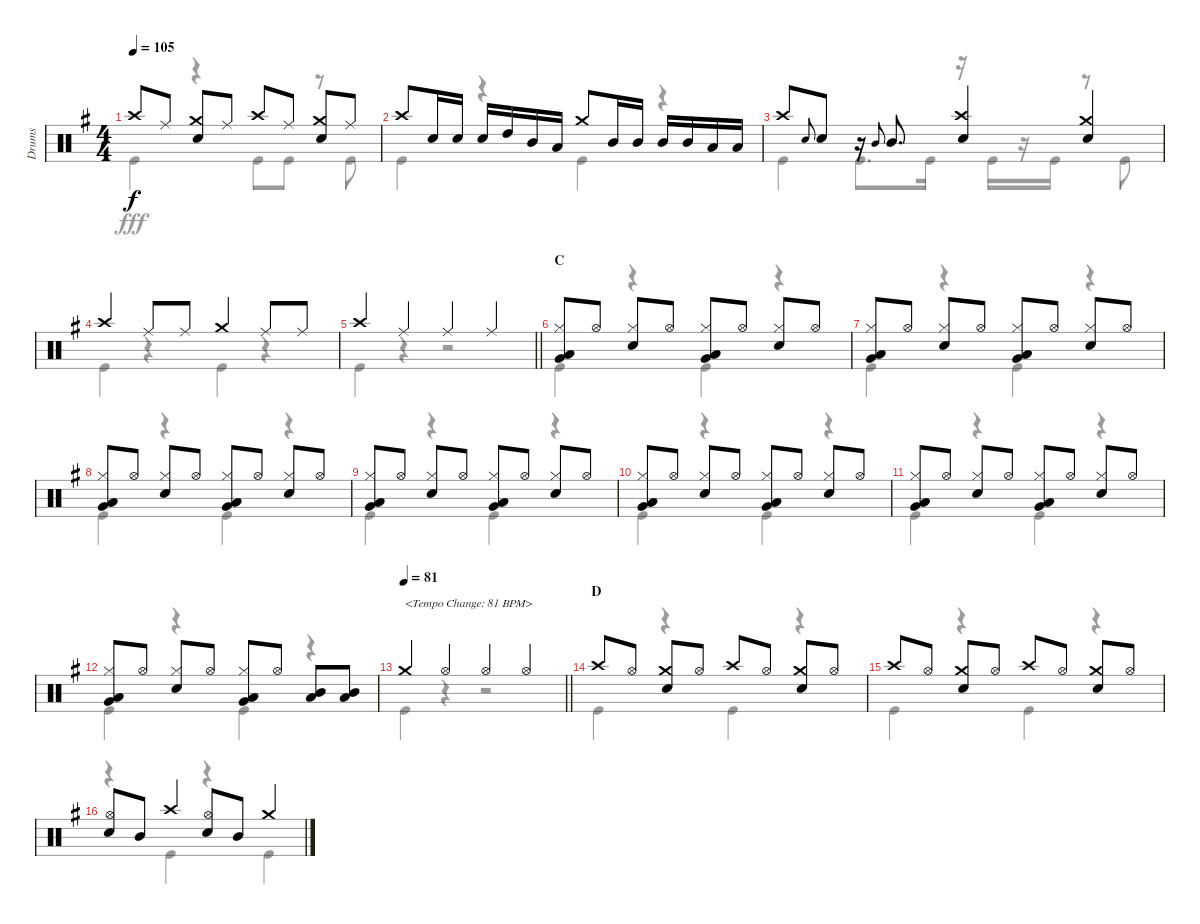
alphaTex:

\track ("Drums" "Drums") {instrument percussion}
\staff {score}
\articulation defaults
\voice
\ts (4 4)
\tempo 105
\clef neutral
\ks g "Crash high (hit)".8{dy f} "Ride (middle)".8
("Crash medium (hit)" "Snare (hit) 2").8 "Ride (middle)".8 "Crash high (hit)".8 "Ride (middle)".8 ("Crash medium (hit)" "Snare (hit) 2").8 "Ride (middle)".8 |
"Crash high (hit)".8 "Snare (hit) 2".16 "Snare (hit) 2".16 "Snare (hit) 2".16 "High Tom (hit)".16 "Mid Tom (hit)".16 "Low Tom (hit)".16 "Crash medium (hit)".8 "Mid Tom (hit)".16 "Mid Tom (hit)".16 "Mid Tom (hit)".16 "Mid Tom (hit)".16 "Low Tom (hit)".16 "Low Tom (hit)".16 |
"Crash high (hit)".8 "Snare (hit) 2".8{gr onbeat} "Snare (hit) 2".8 r.16 "Mid Tom (hit)".8{gr onbeat} "Mid Tom (hit)".8{d} ("Crash high (hit)" "Snare (hit) 2").4 ("Crash medium (hit)" "Snare (hit) 2").4 |
"Crash high (hit)".4 "Ride (middle)".8 "Ride (middle)".8 "Crash medium (hit)".4 "Ride (middle)".8 "Ride (middle)".8 |
\barLineRight lightlight "Crash high (hit)".4 "Ride (middle)".4 "Ride (middle)".4 "Ride (middle)".4
|
\section ("" "C")
("Hi-Hat (closed)" "Low Tom (hit)" "Very Low Tom (hit)").8 "Hi-Hat (open)".8 ("Hi-Hat (closed)" "Snare (hit) 2").8 "Hi-Hat (open)".8 ("Hi-Hat (closed)" "Low Tom (hit)" "Very Low Tom (hit)").8 "Hi-Hat (open)".8 ("Hi-Hat (closed)" "Snare (hit) 2").8 "Hi-Hat (open)".8 |
("Hi-Hat (closed)" "Low Tom (hit)" "Very Low Tom (hit)").8 "Hi-Hat (open)".8 ("Hi-Hat (closed)" "Snare (hit) 2").8 "Hi-Hat (open)".8 ("Hi-Hat (closed)" "Low Tom (hit)" "Very Low Tom (hit)").8 "Hi-Hat (open)".8 ("Hi-Hat (closed)" "Snare (hit) 2").8 "Hi-Hat (open)".8 |
("Hi-Hat (closed)" "Low Tom (hit)" "Very Low Tom (hit)").8 "Hi-Hat (open)".8 ("Hi-Hat (closed)" "Snare (hit) 2").8 "Hi-Hat (open)".8 ("Hi-Hat (closed)" "Low Tom (hit)" "Very Low Tom (hit)").8 "Hi-Hat (open)".8 ("Hi-Hat (closed)" "Snare (hit) 2").8 "Hi-Hat (open)".8 |
("Hi-Hat (closed)" "Low Tom (hit)" "Very Low Tom (hit)").8 "Hi-Hat (open)".8 ("Hi-Hat (closed)" "Snare (hit) 2").8 "Hi-Hat (open)".8 ("Hi-Hat (closed)" "Low Tom (hit)" "Very Low Tom (hit)").8 "Hi-Hat (open)".8 ("Hi-Hat (closed)" "Snare (hit) 2").8 "Hi-Hat (open)".8 |
("Hi-Hat (closed)" "Low Tom (hit)" "Very Low Tom (hit)").8 "Hi-Hat (open)".8 ("Hi-Hat (closed)" "Snare (hit) 2").8 "Hi-Hat (open)".8 ("Hi-Hat (closed)" "Low Tom (hit)" "Very Low Tom (hit)").8 "Hi-Hat (open)".8 ("Hi-Hat (closed)" "Snare (hit) 2").8 "Hi-Hat (open)".8 |
("Hi-Hat (closed)" "Low Tom (hit)" "Very Low Tom (hit)").8 "Hi-Hat (open)".8 ("Hi-Hat (closed)" "Snare (hit) 2").8 "Hi-Hat (open)".8 ("Hi-Hat (closed)" "Low Tom (hit)" "Very Low Tom (hit)").8 "Hi-Hat (open)".8 ("Hi-Hat (closed)" "Snare (hit) 2").8 "Hi-Hat (open)".8 |
("Hi-Hat (closed)" "Low Tom (hit)" "Very Low Tom (hit)").8 "Hi-Hat (open)".8 ("Hi-Hat (closed)" "Snare (hit) 2").8 "Hi-Hat (open)".8 ("Hi-Hat (closed)" "Low Tom (hit)" "Very Low Tom (hit)").8 "Hi-Hat (open)".8 ("Mid Tom (hit)" "Low Tom (hit)").8 ("Mid Tom (hit)" "Low Tom (hit)").8 |
\tempo 81
\barLineRight lightlight "Crash medium (hit)".4{txt "<Tempo Change: 81 BPM>"} "Hi-Hat (open)".4 "Hi-Hat (open)".4 "Hi-Hat (open)".4
|
\section ("" "D")
"Crash high (hit)".8 "Hi-Hat (open)".8 ("Crash medium (hit)" "Snare (hit) 2").8 "Hi-Hat (open)".8 "Crash high (hit)".8 "Hi-Hat (open)".8 ("Crash medium (hit)" "Snare (hit) 2").8 "Hi-Hat (open)".8 |
"Crash high (hit)".8 "Hi-Hat (open)".8 ("Crash medium (hit)" "Snare (hit) 2").8 "Hi-Hat (open)".8 "Crash high (hit)".8 "Hi-Hat (open)".8 ("Crash medium (hit)" "Snare (hit) 2").8 "Hi-Hat (open)".8 |
("Hi-Hat (open)" "Snare (hit) 2").8 "Mid Tom (hit)".8 "Crash high (hit)".4 ("Hi-Hat (open)" "Snare (hit) 2").8 "Mid Tom (hit)".8 "Crash medium (hit)".4
\voice
\clef neutral
\ottava regular
\simile none
\ks g "Kick (hit)".4{dy fff}
r.4 "Kick (hit)".8 "Kick (hit)".8 r.8 "Kick (hit)".8 |
"Kick (hit)".4 r.4 "Kick (hit)".4 r.4 |
"Kick (hit)".4 "Kick (hit)".8{d} "Kick (hit)".16 r.16 "Kick (hit)".16 r.16 "Kick (hit)".16 r.8 "Kick (hit)".8 |
"Kick (hit)".4 r.4 "Kick (hit)".4 r.4 |
\barLineRight lightlight "Kick (hit)".4
r.4 r.2 |
"Kick (hit)".4 r.4 "Kick (hit)".4 r.4 |
"Kick (hit)".4 r.4 "Kick (hit)".4 r.4 |
"Kick (hit)".4 r.4 "Kick (hit)".4 r.4 |
"Kick (hit)".4 r.4 "Kick (hit)".4 r.4 |
"Kick (hit)".4 r.4 "Kick (hit)".4 r.4 |
"Kick (hit)".4 r.4 "Kick (hit)".4 r.4 |
"Kick (hit)".4 r.4 "Kick (hit)".4 r.4 |
\barLineRight lightlight "Kick (hit)".4
r.4 r.2 |
"Kick (hit)".4 r.4 "Kick (hit)".4 r.4 |
"Kick (hit)".4 r.4 "Kick (hit)".4 r.4 |
r.4 "Kick (hit)".4 r.4 "Kick (hit)".4
